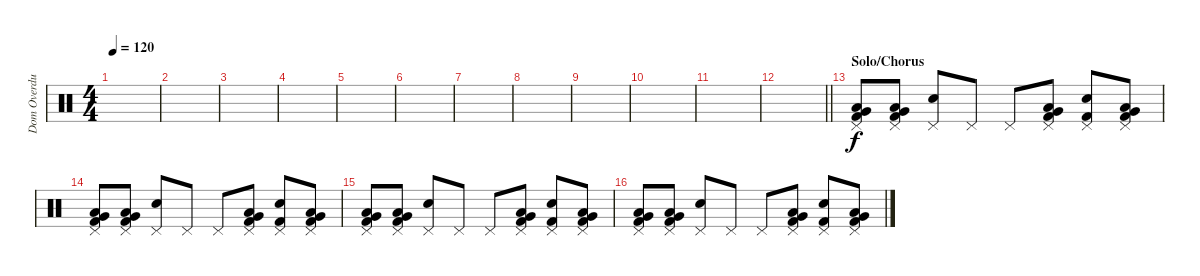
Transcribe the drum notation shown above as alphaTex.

\track ("Dom Overdub" "Dom Overdu") {instrument percussion}
\staff {score}
\articulation defaults
\ts (4 4)
\tempo 120
\clef neutral
\ks c
|
|
|
|
|
|
|
|
|
|
|
\barLineRight lightlight
|
\section ("" "Solo/Chorus")
("Pedal Hi-Hat (hit)" "Very Low Tom (hit)" "Low Floor Tom (hit)" "Kick (hit) 2").8{dy f} ("Pedal Hi-Hat (hit)" "Very Low Tom (hit)" "Low Floor Tom (hit)" "Kick (hit) 2").8 ("Pedal Hi-Hat (hit)" "Electric Snare (hit)").8 "Pedal Hi-Hat (hit)".8 "Pedal Hi-Hat (hit)".8 ("Pedal Hi-Hat (hit)" "Very Low Tom (hit)" "Low Floor Tom (hit)" "Kick (hit) 2").8 ("Pedal Hi-Hat (hit)" "Electric Snare (hit)" "Kick (hit) 2").8 ("Pedal Hi-Hat (hit)" "Very Low Tom (hit)" "Low Floor Tom (hit)" "Kick (hit) 2").8 |
("Pedal Hi-Hat (hit)" "Very Low Tom (hit)" "Low Floor Tom (hit)" "Kick (hit) 2").8 ("Pedal Hi-Hat (hit)" "Very Low Tom (hit)" "Low Floor Tom (hit)" "Kick (hit) 2").8 ("Pedal Hi-Hat (hit)" "Electric Snare (hit)").8 "Pedal Hi-Hat (hit)".8 "Pedal Hi-Hat (hit)".8 ("Pedal Hi-Hat (hit)" "Very Low Tom (hit)" "Low Floor Tom (hit)" "Kick (hit) 2").8 ("Pedal Hi-Hat (hit)" "Electric Snare (hit)" "Kick (hit) 2").8 ("Pedal Hi-Hat (hit)" "Very Low Tom (hit)" "Low Floor Tom (hit)" "Kick (hit) 2").8 |
("Pedal Hi-Hat (hit)" "Very Low Tom (hit)" "Low Floor Tom (hit)" "Kick (hit) 2").8 ("Pedal Hi-Hat (hit)" "Very Low Tom (hit)" "Low Floor Tom (hit)" "Kick (hit) 2").8 ("Pedal Hi-Hat (hit)" "Electric Snare (hit)").8 "Pedal Hi-Hat (hit)".8 "Pedal Hi-Hat (hit)".8 ("Pedal Hi-Hat (hit)" "Very Low Tom (hit)" "Low Floor Tom (hit)" "Kick (hit) 2").8 ("Pedal Hi-Hat (hit)" "Electric Snare (hit)" "Kick (hit) 2").8 ("Pedal Hi-Hat (hit)" "Very Low Tom (hit)" "Low Floor Tom (hit)" "Kick (hit) 2").8 |
("Pedal Hi-Hat (hit)" "Very Low Tom (hit)" "Low Floor Tom (hit)" "Kick (hit) 2").8 ("Pedal Hi-Hat (hit)" "Very Low Tom (hit)" "Low Floor Tom (hit)" "Kick (hit) 2").8 ("Pedal Hi-Hat (hit)" "Electric Snare (hit)").8 "Pedal Hi-Hat (hit)".8 "Pedal Hi-Hat (hit)".8 ("Pedal Hi-Hat (hit)" "Very Low Tom (hit)" "Low Floor Tom (hit)" "Kick (hit) 2").8 ("Pedal Hi-Hat (hit)" "Electric Snare (hit)" "Kick (hit) 2").8 ("Pedal Hi-Hat (hit)" "Very Low Tom (hit)" "Low Floor Tom (hit)" "Kick (hit) 2").8
